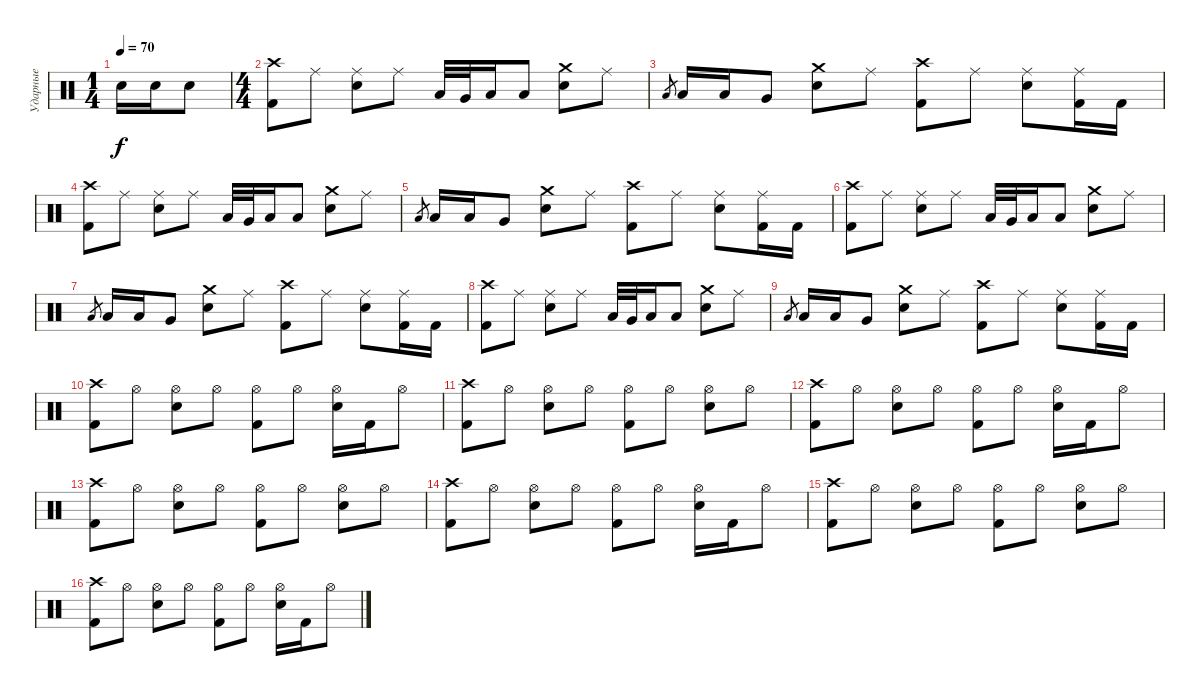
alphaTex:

\track ("Ударные" "Ударные") {instrument percussion}
\staff {score}
\articulation defaults
\ts (1 4)
\tempo 70
\clef neutral
\ks c "Snare (hit) 2".16{dy f} "Snare (hit) 2".16 "Snare (hit) 2".8
|
\ts (4 4)
("Crash high (hit)" "Kick (hit) 2").8 "Ride (middle)".8 ("Ride (middle)" "Snare (hit) 2").8 "Ride (middle)".8 "Low Tom (hit)".32 "Very Low Tom (hit)".32 "Low Tom (hit)".16 "Low Tom (hit)".8 ("Crash medium (hit)" "Snare (hit) 2").8 "Ride (middle)".8 |
"Low Tom (hit)".8{gr} "Low Tom (hit)".16 "Low Tom (hit)".16 "Very Low Tom (hit)".8 ("Crash medium (hit)" "Snare (hit) 2").8 "Ride (middle)".8 ("Crash high (hit)" "Kick (hit) 2").8 "Ride (middle)".8 ("Ride (middle)" "Snare (hit) 2").8 ("Ride (middle)" "Kick (hit) 2").16 "Kick (hit) 2".16 |
("Crash high (hit)" "Kick (hit) 2").8 "Ride (middle)".8 ("Ride (middle)" "Snare (hit) 2").8 "Ride (middle)".8 "Low Tom (hit)".32 "Very Low Tom (hit)".32 "Low Tom (hit)".16 "Low Tom (hit)".8 ("Crash medium (hit)" "Snare (hit) 2").8 "Ride (middle)".8 |
"Low Tom (hit)".8{gr} "Low Tom (hit)".16 "Low Tom (hit)".16 "Very Low Tom (hit)".8 ("Crash medium (hit)" "Snare (hit) 2").8 "Ride (middle)".8 ("Crash high (hit)" "Kick (hit) 2").8 "Ride (middle)".8 ("Ride (middle)" "Snare (hit) 2").8 ("Ride (middle)" "Kick (hit) 2").16 "Kick (hit) 2".16 |
("Crash high (hit)" "Kick (hit) 2").8 "Ride (middle)".8 ("Ride (middle)" "Snare (hit) 2").8 "Ride (middle)".8 "Low Tom (hit)".32 "Very Low Tom (hit)".32 "Low Tom (hit)".16 "Low Tom (hit)".8 ("Crash medium (hit)" "Snare (hit) 2").8 "Ride (middle)".8 |
"Low Tom (hit)".8{gr} "Low Tom (hit)".16 "Low Tom (hit)".16 "Very Low Tom (hit)".8 ("Crash medium (hit)" "Snare (hit) 2").8 "Ride (middle)".8 ("Crash high (hit)" "Kick (hit) 2").8 "Ride (middle)".8 ("Ride (middle)" "Snare (hit) 2").8 ("Ride (middle)" "Kick (hit) 2").16 "Kick (hit) 2".16 |
("Crash high (hit)" "Kick (hit) 2").8 "Ride (middle)".8 ("Ride (middle)" "Snare (hit) 2").8 "Ride (middle)".8 "Low Tom (hit)".32 "Very Low Tom (hit)".32 "Low Tom (hit)".16 "Low Tom (hit)".8 ("Crash medium (hit)" "Snare (hit) 2").8 "Ride (middle)".8 |
"Low Tom (hit)".8{gr} "Low Tom (hit)".16 "Low Tom (hit)".16 "Very Low Tom (hit)".8 ("Crash medium (hit)" "Snare (hit) 2").8 "Ride (middle)".8 ("Crash high (hit)" "Kick (hit) 2").8 "Ride (middle)".8 ("Ride (middle)" "Snare (hit) 2").8 ("Ride (middle)" "Kick (hit) 2").16 "Kick (hit) 2".16 |
("Crash high (hit)" "Kick (hit) 2").8 "Hi-Hat (open)".8 ("Hi-Hat (open)" "Snare (hit) 2").8 "Hi-Hat (open)".8 ("Hi-Hat (open)" "Kick (hit) 2").8 "Hi-Hat (open)".8 ("Hi-Hat (open)" "Snare (hit) 2").16 "Kick (hit) 2".16 "Hi-Hat (open)".8 |
("Crash high (hit)" "Kick (hit) 2").8 "Hi-Hat (open)".8 ("Hi-Hat (open)" "Snare (hit) 2").8 "Hi-Hat (open)".8 ("Hi-Hat (open)" "Kick (hit) 2").8 "Hi-Hat (open)".8 ("Hi-Hat (open)" "Snare (hit) 2").8 "Hi-Hat (open)".8 |
("Crash high (hit)" "Kick (hit) 2").8 "Hi-Hat (open)".8 ("Hi-Hat (open)" "Snare (hit) 2").8 "Hi-Hat (open)".8 ("Hi-Hat (open)" "Kick (hit) 2").8 "Hi-Hat (open)".8 ("Hi-Hat (open)" "Snare (hit) 2").16 "Kick (hit) 2".16 "Hi-Hat (open)".8 |
("Crash high (hit)" "Kick (hit) 2").8 "Hi-Hat (open)".8 ("Hi-Hat (open)" "Snare (hit) 2").8 "Hi-Hat (open)".8 ("Hi-Hat (open)" "Kick (hit) 2").8 "Hi-Hat (open)".8 ("Hi-Hat (open)" "Snare (hit) 2").8 "Hi-Hat (open)".8 |
("Crash high (hit)" "Kick (hit) 2").8 "Hi-Hat (open)".8 ("Hi-Hat (open)" "Snare (hit) 2").8 "Hi-Hat (open)".8 ("Hi-Hat (open)" "Kick (hit) 2").8 "Hi-Hat (open)".8 ("Hi-Hat (open)" "Snare (hit) 2").16 "Kick (hit) 2".16 "Hi-Hat (open)".8 |
("Crash high (hit)" "Kick (hit) 2").8 "Hi-Hat (open)".8 ("Hi-Hat (open)" "Snare (hit) 2").8 "Hi-Hat (open)".8 ("Hi-Hat (open)" "Kick (hit) 2").8 "Hi-Hat (open)".8 ("Hi-Hat (open)" "Snare (hit) 2").8 "Hi-Hat (open)".8 |
("Crash high (hit)" "Kick (hit) 2").8 "Hi-Hat (open)".8 ("Hi-Hat (open)" "Snare (hit) 2").8 "Hi-Hat (open)".8 ("Hi-Hat (open)" "Kick (hit) 2").8 "Hi-Hat (open)".8 ("Hi-Hat (open)" "Snare (hit) 2").16 "Kick (hit) 2".16 "Hi-Hat (open)".8
